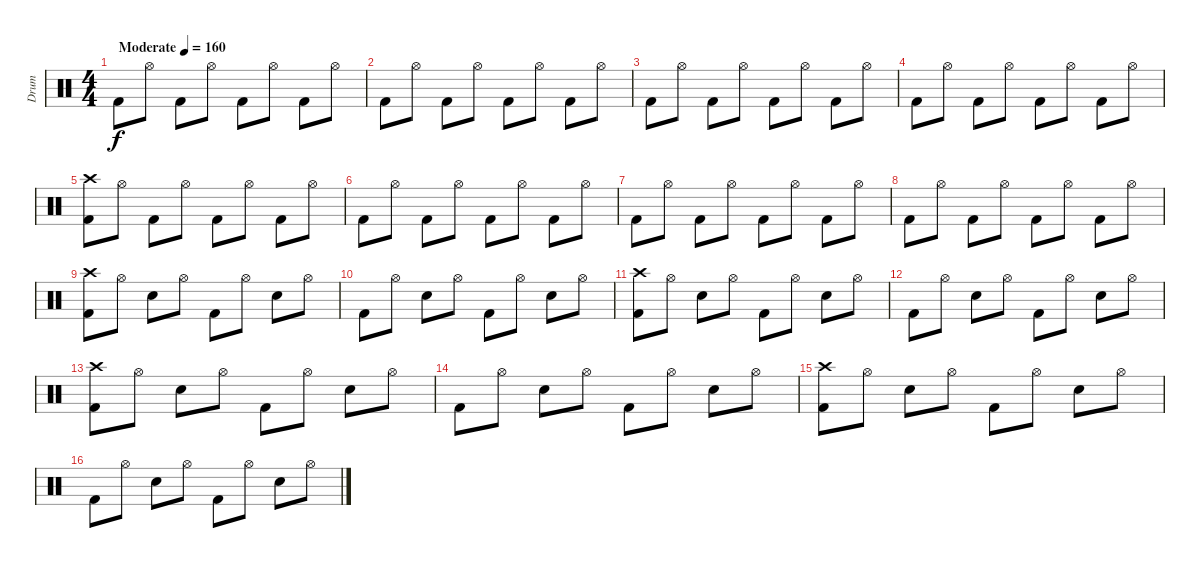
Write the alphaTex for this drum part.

\track ("Drum" "Drum") {instrument percussion}
\staff {score}
\articulation defaults
\ts (4 4)
\tempo (160 "Moderate")
\clef neutral
\ks c "Kick (hit) 2".8{dy f} "Hi-Hat (open)".8 "Kick (hit) 2".8 "Hi-Hat (open)".8 "Kick (hit) 2".8 "Hi-Hat (open)".8 "Kick (hit) 2".8 "Hi-Hat (open)".8
|
"Kick (hit) 2".8 "Hi-Hat (open)".8 "Kick (hit) 2".8 "Hi-Hat (open)".8 "Kick (hit) 2".8 "Hi-Hat (open)".8 "Kick (hit) 2".8 "Hi-Hat (open)".8 |
"Kick (hit) 2".8 "Hi-Hat (open)".8 "Kick (hit) 2".8 "Hi-Hat (open)".8 "Kick (hit) 2".8 "Hi-Hat (open)".8 "Kick (hit) 2".8 "Hi-Hat (open)".8 |
"Kick (hit) 2".8 "Hi-Hat (open)".8 "Kick (hit) 2".8 "Hi-Hat (open)".8 "Kick (hit) 2".8 "Hi-Hat (open)".8 "Kick (hit) 2".8 "Hi-Hat (open)".8 |
("Crash high (hit)" "Kick (hit) 2").8 "Hi-Hat (open)".8 "Kick (hit) 2".8 "Hi-Hat (open)".8 "Kick (hit) 2".8 "Hi-Hat (open)".8 "Kick (hit) 2".8 "Hi-Hat (open)".8 |
"Kick (hit) 2".8 "Hi-Hat (open)".8 "Kick (hit) 2".8 "Hi-Hat (open)".8 "Kick (hit) 2".8 "Hi-Hat (open)".8 "Kick (hit) 2".8 "Hi-Hat (open)".8 |
"Kick (hit) 2".8 "Hi-Hat (open)".8 "Kick (hit) 2".8 "Hi-Hat (open)".8 "Kick (hit) 2".8 "Hi-Hat (open)".8 "Kick (hit) 2".8 "Hi-Hat (open)".8 |
"Kick (hit) 2".8 "Hi-Hat (open)".8 "Kick (hit) 2".8 "Hi-Hat (open)".8 "Kick (hit) 2".8 "Hi-Hat (open)".8 "Kick (hit) 2".8 "Hi-Hat (open)".8 |
("Crash high (hit)" "Kick (hit) 2").8 "Hi-Hat (open)".8 "Snare (hit) 2".8 "Hi-Hat (open)".8 "Kick (hit) 2".8 "Hi-Hat (open)".8 "Snare (hit) 2".8 "Hi-Hat (open)".8 |
"Kick (hit) 2".8 "Hi-Hat (open)".8 "Snare (hit) 2".8 "Hi-Hat (open)".8 "Kick (hit) 2".8 "Hi-Hat (open)".8 "Snare (hit) 2".8 "Hi-Hat (open)".8 |
("Crash high (hit)" "Kick (hit) 2").8 "Hi-Hat (open)".8 "Snare (hit) 2".8 "Hi-Hat (open)".8 "Kick (hit) 2".8 "Hi-Hat (open)".8 "Snare (hit) 2".8 "Hi-Hat (open)".8 |
"Kick (hit) 2".8 "Hi-Hat (open)".8 "Snare (hit) 2".8 "Hi-Hat (open)".8 "Kick (hit) 2".8 "Hi-Hat (open)".8 "Snare (hit) 2".8 "Hi-Hat (open)".8 |
("Crash high (hit)" "Kick (hit) 2").8 "Hi-Hat (open)".8 "Snare (hit) 2".8 "Hi-Hat (open)".8 "Kick (hit) 2".8 "Hi-Hat (open)".8 "Snare (hit) 2".8 "Hi-Hat (open)".8 |
"Kick (hit) 2".8 "Hi-Hat (open)".8 "Snare (hit) 2".8 "Hi-Hat (open)".8 "Kick (hit) 2".8 "Hi-Hat (open)".8 "Snare (hit) 2".8 "Hi-Hat (open)".8 |
("Crash high (hit)" "Kick (hit) 2").8 "Hi-Hat (open)".8 "Snare (hit) 2".8 "Hi-Hat (open)".8 "Kick (hit) 2".8 "Hi-Hat (open)".8 "Snare (hit) 2".8 "Hi-Hat (open)".8 |
"Kick (hit) 2".8 "Hi-Hat (open)".8 "Snare (hit) 2".8 "Hi-Hat (open)".8 "Kick (hit) 2".8 "Hi-Hat (open)".8 "Snare (hit) 2".8 "Hi-Hat (open)".8
